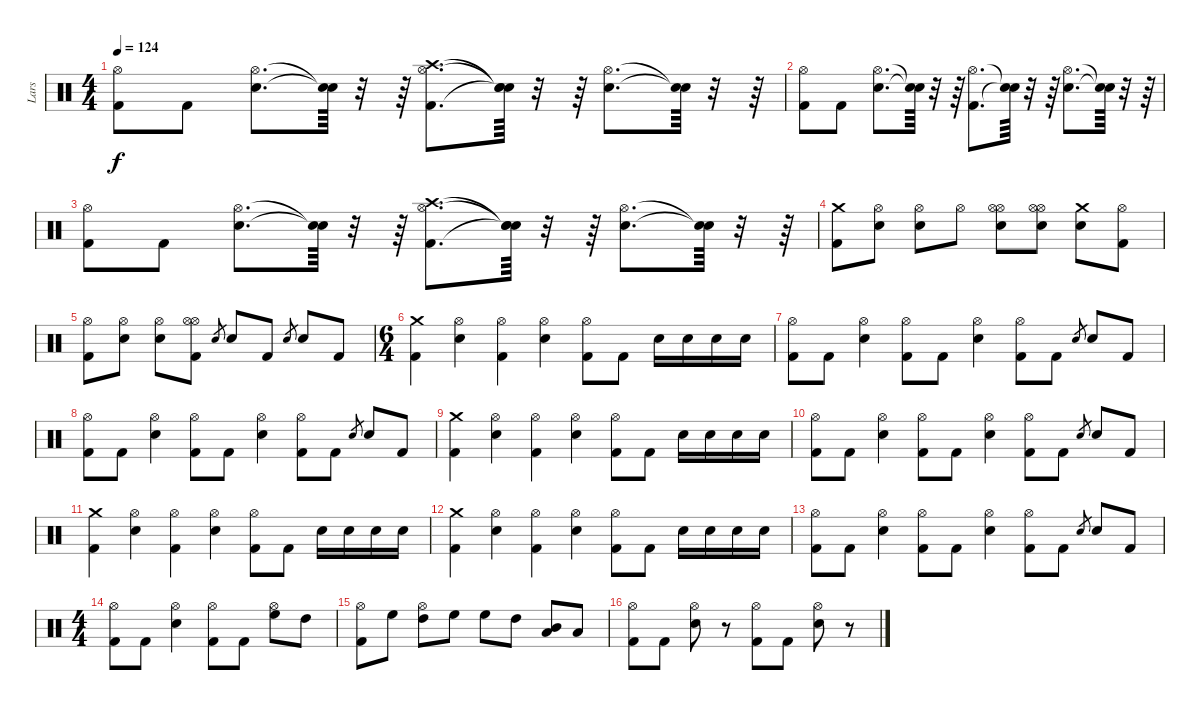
\track ("Lars" "Lars") {instrument percussion}
\staff {score}
\articulation defaults
\ts (4 4)
\tempo 124
\clef neutral
\ks c
("Kick (hit) 2" "Hi-Hat (open)").8{dy f} "Kick (hit) 2".8 ("Snare (hit) 2" "Hi-Hat (open)").8{d} ("Snare (hit)"{t} "Snare (hit)"{t}).64 r.32 r.64 ("Kick (hit) 2" "Hi-Hat (open)" "Crash high (hit)").8{d} ("Snare (hit)"{t} "Snare (hit)"{t} "Snare (hit)"{t}).64 r.32 r.64 ("Snare (hit) 2" "Hi-Hat (open)").8{d} ("Snare (hit)"{t} "Snare (hit)"{t}).64 r.32 r.64 |
("Kick (hit) 2" "Hi-Hat (open)").8 "Kick (hit) 2".8 ("Snare (hit) 2" "Hi-Hat (open)").8{d} ("Snare (hit)"{t} "Snare (hit)"{t}).64 r.32 r.64 ("Kick (hit) 2" "Hi-Hat (open)").8{d} ("Snare (hit)"{t} "Snare (hit)"{t}).64 r.32 r.64 ("Snare (hit) 2" "Hi-Hat (open)").8{d} ("Snare (hit)"{t} "Snare (hit)"{t}).64 r.32 r.64 |
("Kick (hit) 2" "Hi-Hat (open)").8 "Kick (hit) 2".8 ("Snare (hit) 2" "Hi-Hat (open)").8{d} ("Snare (hit)"{t} "Snare (hit)"{t}).64 r.32 r.64 ("Kick (hit) 2" "Hi-Hat (open)" "Crash high (hit)").8{d} ("Snare (hit)"{t} "Snare (hit)"{t} "Snare (hit)"{t}).64 r.32 r.64 ("Snare (hit) 2" "Hi-Hat (open)").8{d} ("Snare (hit)"{t} "Snare (hit)"{t}).64 r.32 r.64 |
("Kick (hit) 2" "Crash medium (hit)").8 ("Snare (hit) 2" "Hi-Hat (open)").8 ("Snare (hit) 2" "Hi-Hat (open)").8 "Hi-Hat (open)".8 ("Snare (hit) 2" "Hi-Hat (open)" "Hi-Hat (open)").8 ("Snare (hit) 2" "Hi-Hat (open)" "Hi-Hat (open)").8 ("Snare (hit) 2" "Crash medium (hit)").8 ("Kick (hit) 2" "Hi-Hat (open)").8 |
("Kick (hit) 2" "Hi-Hat (open)").8 ("Snare (hit) 2" "Hi-Hat (open)").8 ("Snare (hit) 2" "Hi-Hat (open)").8 ("Kick (hit) 2" "Hi-Hat (open)" "Hi-Hat (open)").8 "Snare (hit) 2".8{gr} "Snare (hit) 2".8 "Kick (hit) 2".8 "Snare (hit) 2".8{gr} "Snare (hit) 2".8 "Kick (hit) 2".8 |
\ts (6 4)
("Kick (hit) 2" "Crash medium (hit)").4 ("Snare (hit) 2" "Hi-Hat (open)").4 ("Kick (hit) 2" "Hi-Hat (open)").4 ("Snare (hit) 2" "Hi-Hat (open)").4 ("Kick (hit) 2" "Hi-Hat (open)").8 "Kick (hit) 2".8 "Snare (hit) 2".16 "Snare (hit) 2".16 "Snare (hit) 2".16 "Snare (hit) 2".16 |
("Kick (hit) 2" "Hi-Hat (open)").8 "Kick (hit) 2".8 ("Snare (hit) 2" "Hi-Hat (open)").4 ("Kick (hit) 2" "Hi-Hat (open)").8 "Kick (hit) 2".8 ("Snare (hit) 2" "Hi-Hat (open)").4 ("Kick (hit) 2" "Hi-Hat (open)").8 "Kick (hit) 2".8 "Snare (hit) 2".8{gr} "Snare (hit) 2".8 "Kick (hit) 2".8 |
("Kick (hit) 2" "Hi-Hat (open)").8 "Kick (hit) 2".8 ("Snare (hit) 2" "Hi-Hat (open)").4 ("Kick (hit) 2" "Hi-Hat (open)").8 "Kick (hit) 2".8 ("Snare (hit) 2" "Hi-Hat (open)").4 ("Kick (hit) 2" "Hi-Hat (open)").8 "Kick (hit) 2".8 "Snare (hit) 2".8{gr} "Snare (hit) 2".8 "Kick (hit) 2".8 |
("Kick (hit) 2" "Crash medium (hit)").4 ("Snare (hit) 2" "Hi-Hat (open)").4 ("Kick (hit) 2" "Hi-Hat (open)").4 ("Snare (hit) 2" "Hi-Hat (open)").4 ("Kick (hit) 2" "Hi-Hat (open)").8 "Kick (hit) 2".8 "Snare (hit) 2".16 "Snare (hit) 2".16 "Snare (hit) 2".16 "Snare (hit) 2".16 |
("Kick (hit) 2" "Hi-Hat (open)").8 "Kick (hit) 2".8 ("Snare (hit) 2" "Hi-Hat (open)").4 ("Kick (hit) 2" "Hi-Hat (open)").8 "Kick (hit) 2".8 ("Snare (hit) 2" "Hi-Hat (open)").4 ("Kick (hit) 2" "Hi-Hat (open)").8 "Kick (hit) 2".8 "Snare (hit) 2".8{gr} "Snare (hit) 2".8 "Kick (hit) 2".8 |
("Kick (hit) 2" "Crash medium (hit)").4 ("Snare (hit) 2" "Hi-Hat (open)").4 ("Kick (hit) 2" "Hi-Hat (open)").4 ("Snare (hit) 2" "Hi-Hat (open)").4 ("Kick (hit) 2" "Hi-Hat (open)").8 "Kick (hit) 2".8 "Snare (hit) 2".16 "Snare (hit) 2".16 "Snare (hit) 2".16 "Snare (hit) 2".16 |
("Kick (hit) 2" "Crash medium (hit)").4 ("Snare (hit) 2" "Hi-Hat (open)").4 ("Kick (hit) 2" "Hi-Hat (open)").4 ("Snare (hit) 2" "Hi-Hat (open)").4 ("Kick (hit) 2" "Hi-Hat (open)").8 "Kick (hit) 2".8 "Snare (hit) 2".16 "Snare (hit) 2".16 "Snare (hit) 2".16 "Snare (hit) 2".16 |
("Kick (hit) 2" "Hi-Hat (open)").8 "Kick (hit) 2".8 ("Snare (hit) 2" "Hi-Hat (open)").4 ("Kick (hit) 2" "Hi-Hat (open)").8 "Kick (hit) 2".8 ("Snare (hit) 2" "Hi-Hat (open)").4 ("Kick (hit) 2" "Hi-Hat (open)").8 "Kick (hit) 2".8 "Snare (hit) 2".8{gr} "Snare (hit) 2".8 "Kick (hit) 2".8 |
\ts (4 4)
("Kick (hit) 2" "Hi-Hat (open)").8 "Kick (hit) 2".8 ("Snare (hit) 2" "Hi-Hat (open)").4 ("Hi-Hat (open)" "Kick (hit) 2").8 "Kick (hit) 2".8 ("Hi-Hat (open)" "High Floor Tom (hit)").8 "High Tom (hit)".8 |
("Kick (hit) 2" "Hi-Hat (open)").8 "High Floor Tom (hit)".8 ("High Tom (hit)" "Hi-Hat (open)").8 "High Floor Tom (hit)".8 "High Floor Tom (hit)".8 "High Tom (hit)".8 ("Mid Tom (hit)" "Low Tom (hit)").8 "Low Tom (hit)".8 |
("Kick (hit) 2" "Hi-Hat (open)").8 "Kick (hit) 2".8 ("Snare (hit) 2" "Hi-Hat (open)").8 r.8 ("Kick (hit) 2" "Hi-Hat (open)").8 "Kick (hit) 2".8 ("Snare (hit) 2" "Hi-Hat (open)").8 r.8
